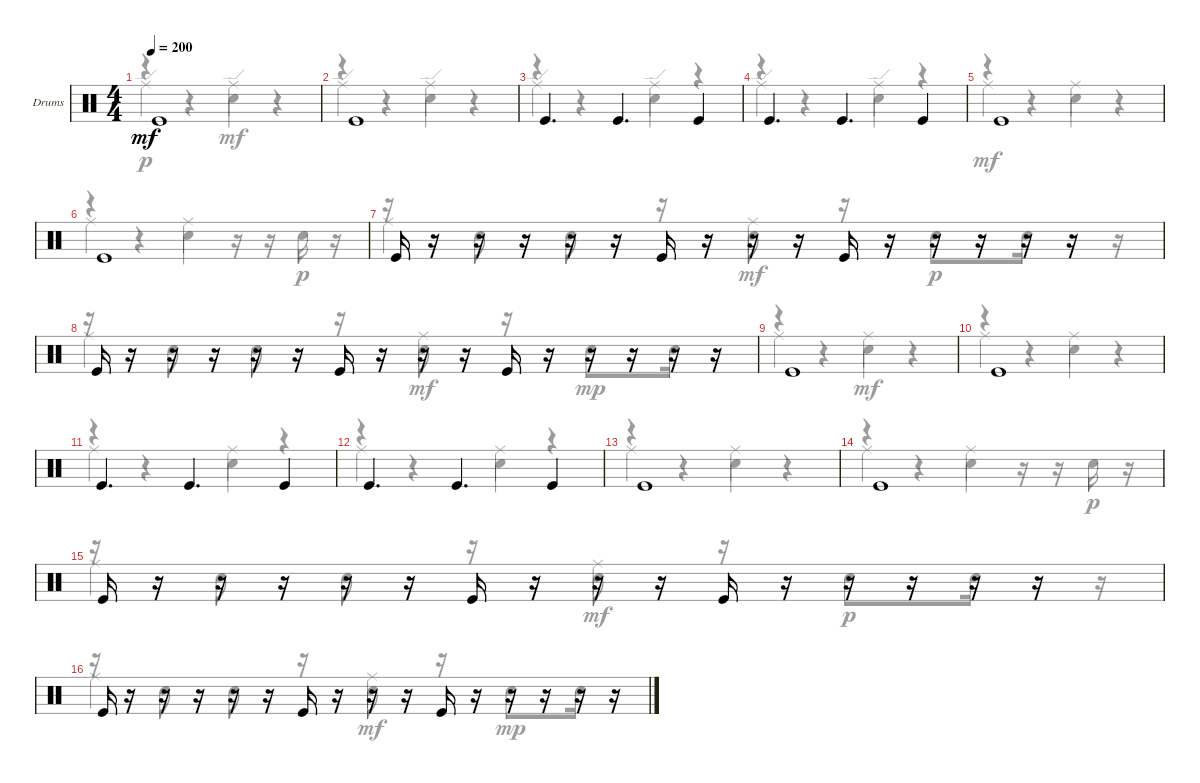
\defaultSystemsLayout 4
\bracketExtendMode groupsimilarinstruments
\firstSystemTrackNameOrientation horizontal
\otherSystemsTrackNameOrientation horizontal
\track ("Drum" "Drums") {instrument percussion}
\staff {score}
\articulation defaults
\voice
\ts (4 4)
\tempo 200
\clef neutral
\ks c "Kick (hit)".1{dy mf}
|
"Kick (hit)".1 |
"Kick (hit)".4{d} "Kick (hit)".4{d} "Kick (hit)".4 |
"Kick (hit)".4{d} "Kick (hit)".4{d} "Kick (hit)".4 |
"Kick (hit)".1 |
"Kick (hit)".1 |
"Kick (hit)".16 r.16 r.16 r.16 r.16 r.16 "Kick (hit)".16 r.16 r.16 r.16 "Kick (hit)".16 r.16 r.16 r.16 r.16 r.16 |
"Kick (hit)".16 r.16 r.16 r.16 r.16 r.16 "Kick (hit)".16 r.16 r.16 r.16 "Kick (hit)".16 r.16 r.16 r.16 r.16 r.16 |
"Kick (hit)".1 |
"Kick (hit)".1 |
"Kick (hit)".4{d} "Kick (hit)".4{d} "Kick (hit)".4 |
"Kick (hit)".4{d} "Kick (hit)".4{d} "Kick (hit)".4 |
"Kick (hit)".1 |
"Kick (hit)".1 |
"Kick (hit)".16 r.16 r.16 r.16 r.16 r.16 "Kick (hit)".16 r.16 r.16 r.16 "Kick (hit)".16 r.16 r.16 r.16 r.16 r.16 |
"Kick (hit)".16 r.16 r.16 r.16 r.16 r.16 "Kick (hit)".16 r.16 r.16 r.16 "Kick (hit)".16 r.16 r.16 r.16 r.16 r.16
\voice
\clef neutral
\ottava regular
\simile none
\ks c
r.4{dy mp} r.4 "Snare (hit) 2".4{dy mf} r.4 |
r.4 r.4 "Snare (hit) 2".4 r.4 |
r.4 r.4 "Snare (hit) 2".4 r.4 |
r.4 r.4 "Snare (hit) 2".4 r.4 |
r.4 r.4 "Snare (hit) 2".4 r.4 |
r.4 r.4 "Snare (hit) 2".4 r.16 r.16 "Snare (hit) 2".16{dy p} r.16 |
r.16 r.16 "Snare (hit) 2".8 "Snare (hit) 2".8 r.16 r.16 "Snare (hit) 2".8{dy mf} r.16 r.16 "Snare (hit) 2".8{dy p} "Snare (hit) 2".16 r.16 r.16 |
r.16 r.16 "Snare (hit) 2".8 "Snare (hit) 2".8 r.16 r.16 "Snare (hit) 2".8{dy mf} r.16 r.16 "Snare (hit) 2".8{dy mp} "Snare (hit) 2".16 r.16 |
r.4 r.4 "Snare (hit) 2".4{dy mf} r.4 |
r.4 r.4 "Snare (hit) 2".4 r.4 |
r.4 r.4 "Snare (hit) 2".4 r.4 |
r.4 r.4 "Snare (hit) 2".4 r.4 |
r.4 r.4 "Snare (hit) 2".4 r.4 |
r.4 r.4 "Snare (hit) 2".4 r.16 r.16 "Snare (hit) 2".16{dy p} r.16 |
r.16 r.16 "Snare (hit) 2".8 "Snare (hit) 2".8 r.16 r.16 "Snare (hit) 2".8{dy mf} r.16 r.16 "Snare (hit) 2".8{dy p} "Snare (hit) 2".16 r.16 r.16 |
r.16 r.16 "Snare (hit) 2".8 "Snare (hit) 2".8 r.16 r.16 "Snare (hit) 2".8{dy mf} r.16 r.16 "Snare (hit) 2".8{dy mp} "Snare (hit) 2".16 r.16
\voice
\clef neutral
\ottava regular
\simile none
\ks c "Ride (edge)".2{dy p} "Ride (edge)".2
|
"Ride (edge)".2 "Ride (edge)".2 |
"Ride (edge)".2 "Ride (edge)".2 |
"Ride (edge)".2 "Ride (edge)".2 |
"Ride (middle)".2{dy mf} "Ride (middle)".2 |
"Ride (middle)".2 "Ride (middle)".2 |
"Ride (middle)".2 "Ride (middle)".2 |
"Ride (middle)".2 "Ride (middle)".2 |
"Ride (middle)".2 "Ride (middle)".2 |
"Ride (middle)".2 "Ride (middle)".2 |
"Ride (middle)".2 "Ride (middle)".2 |
"Ride (middle)".2 "Ride (middle)".2 |
"Ride (middle)".2 "Ride (middle)".2 |
"Ride (middle)".2 "Ride (middle)".2 |
"Ride (middle)".2 "Ride (middle)".2 |
"Ride (middle)".2 "Ride (middle)".2
